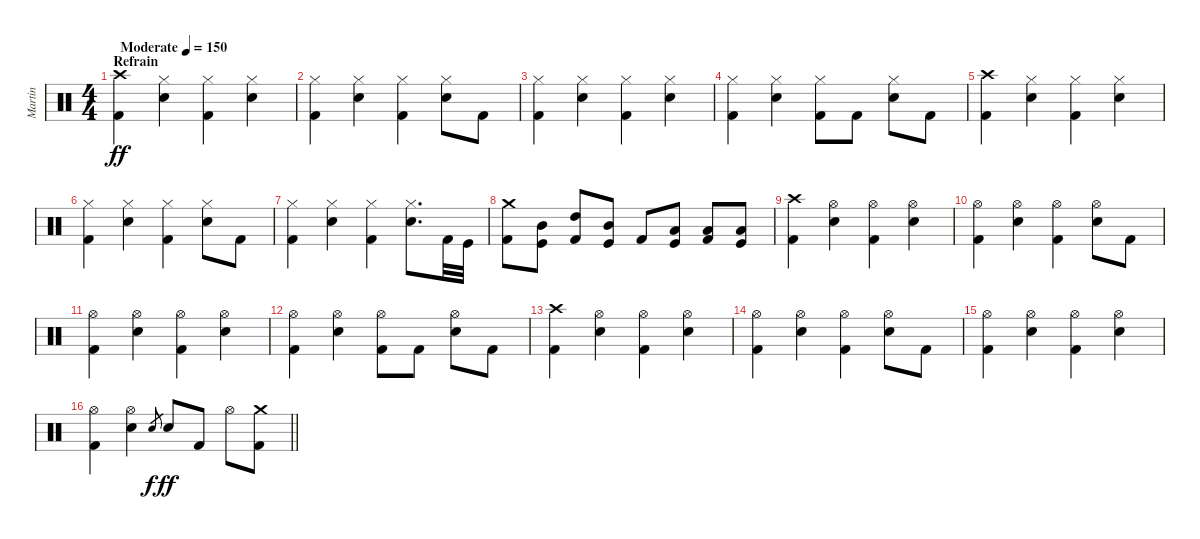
\track ("Martin" "Martin") {instrument percussion}
\staff {score}
\articulation defaults
\ts (4 4)
\section ("" "Refrain")
\tempo (150 "Moderate")
\clef neutral
\ks c
("Crash high (hit)" "Kick (hit) 2").4{dy ff} ("Hi-Hat (closed)" "Electric Snare (hit)").4 ("Hi-Hat (closed)" "Kick (hit) 2").4 ("Hi-Hat (closed)" "Electric Snare (hit)").4 |
("Hi-Hat (closed)" "Kick (hit) 2").4 ("Hi-Hat (closed)" "Electric Snare (hit)").4 ("Hi-Hat (closed)" "Kick (hit) 2").4 ("Hi-Hat (closed)" "Electric Snare (hit)").8 "Kick (hit) 2".8 |
("Hi-Hat (closed)" "Kick (hit) 2").4 ("Hi-Hat (closed)" "Electric Snare (hit)").4 ("Hi-Hat (closed)" "Kick (hit) 2").4 ("Hi-Hat (closed)" "Electric Snare (hit)").4 |
("Hi-Hat (closed)" "Kick (hit) 2").4 ("Hi-Hat (closed)" "Electric Snare (hit)").4 ("Hi-Hat (closed)" "Kick (hit) 2").8 "Kick (hit) 2".8 ("Hi-Hat (closed)" "Electric Snare (hit)").8 "Kick (hit) 2".8 |
("Crash high (hit)" "Kick (hit) 2").4 ("Hi-Hat (closed)" "Electric Snare (hit)").4 ("Hi-Hat (closed)" "Kick (hit) 2").4 ("Hi-Hat (closed)" "Electric Snare (hit)").4 |
("Hi-Hat (closed)" "Kick (hit) 2").4 ("Hi-Hat (closed)" "Electric Snare (hit)").4 ("Hi-Hat (closed)" "Kick (hit) 2").4 ("Hi-Hat (closed)" "Snare (hit)").8 "Kick (hit) 2".8 |
("Hi-Hat (closed)" "Kick (hit) 2").4 ("Hi-Hat (closed)" "Electric Snare (hit)").4 ("Hi-Hat (closed)" "Kick (hit) 2").4 ("Hi-Hat (closed)" "Electric Snare (hit)").8{d} "Kick (hit) 2".32 "Kick (hit)".32 |
("Crash medium (hit)" "Kick (hit) 2").8 ("Mid Tom (hit)" "Kick (hit)").8 ("High Tom (hit)" "Kick (hit) 2").8 ("Mid Tom (hit)" "Kick (hit)").8 "Kick (hit) 2".8 ("Low Tom (hit)" "Kick (hit)").8 ("Low Tom (hit)" "Kick (hit) 2").8 ("Low Tom (hit)" "Kick (hit)").8 |
("Crash high (hit)" "Kick (hit) 2").4 ("Hi-Hat (open)" "Electric Snare (hit)").4 ("Hi-Hat (open)" "Kick (hit) 2").4 ("Hi-Hat (open)" "Electric Snare (hit)").4 |
("Hi-Hat (open)" "Kick (hit) 2").4 ("Hi-Hat (open)" "Electric Snare (hit)").4 ("Hi-Hat (open)" "Kick (hit) 2").4 ("Hi-Hat (open)" "Electric Snare (hit)").8 "Kick (hit) 2".8 |
("Hi-Hat (open)" "Kick (hit) 2").4 ("Hi-Hat (open)" "Electric Snare (hit)").4 ("Hi-Hat (open)" "Kick (hit) 2").4 ("Hi-Hat (open)" "Electric Snare (hit)").4 |
("Hi-Hat (open)" "Kick (hit) 2").4 ("Hi-Hat (open)" "Electric Snare (hit)").4 ("Hi-Hat (open)" "Kick (hit) 2").8 "Kick (hit) 2".8 ("Hi-Hat (open)" "Electric Snare (hit)").8 "Kick (hit) 2".8 |
("Crash high (hit)" "Kick (hit) 2").4 ("Hi-Hat (open)" "Electric Snare (hit)").4 ("Hi-Hat (open)" "Kick (hit) 2").4 ("Hi-Hat (open)" "Electric Snare (hit)").4 |
("Hi-Hat (open)" "Kick (hit) 2").4 ("Hi-Hat (open)" "Electric Snare (hit)").4 ("Hi-Hat (open)" "Kick (hit) 2").4 ("Hi-Hat (open)" "Electric Snare (hit)").8 "Kick (hit) 2".8 |
("Hi-Hat (open)" "Kick (hit) 2").4 ("Hi-Hat (open)" "Electric Snare (hit)").4 ("Hi-Hat (open)" "Kick (hit) 2").4 ("Hi-Hat (open)" "Electric Snare (hit)").4 |
\barLineRight lightlight
("Hi-Hat (open)" "Kick (hit) 2").4 ("Hi-Hat (open)" "Electric Snare (hit)").4 "Electric Snare (hit)".8{gr dy f} "Electric Snare (hit)".8{dy ff} "Kick (hit) 2".8 "Hi-Hat (open)".8 ("Crash medium (hit)" "Kick (hit) 2").8
